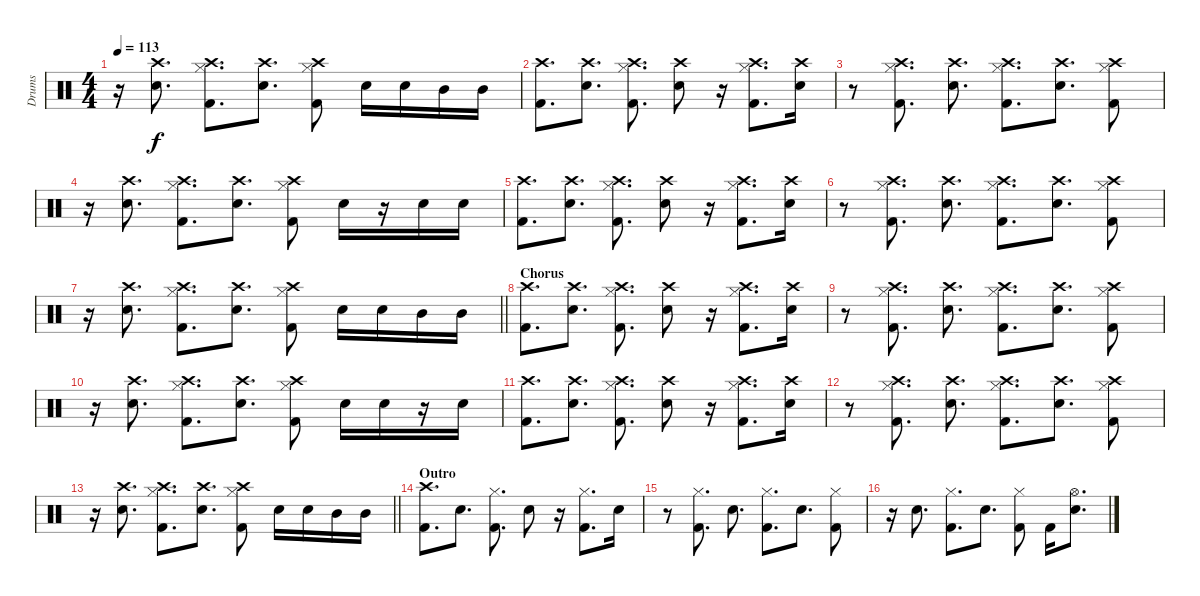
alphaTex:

\track ("Drums" "Drums") {instrument percussion}
\staff {score}
\articulation defaults
\ts (4 4)
\tempo 113
\clef neutral
\ks c
r.16{dy f} ("Crash high (hit)" "Electric Snare (hit)").8{d} ("Crash high (hit)" "Hi-Hat (closed)" "Kick (hit) 2").8{d} ("Crash high (hit)" "Electric Snare (hit)").8{d} ("Crash high (hit)" "Hi-Hat (closed)" "Kick (hit) 2").8 "Electric Snare (hit)".16 "Electric Snare (hit)".16 "Mid Tom (hit)".16 "Mid Tom (hit)".16 |
("Crash high (hit)" "Kick (hit) 2").8{d} ("Crash high (hit)" "Electric Snare (hit)").8{d} ("Crash high (hit)" "Hi-Hat (closed)" "Kick (hit) 2").8{d} ("Crash high (hit)" "Electric Snare (hit)").8 r.16 ("Crash high (hit)" "Hi-Hat (closed)" "Kick (hit) 2").8{d} ("Crash high (hit)" "Electric Snare (hit)").16 |
r.8 ("Crash high (hit)" "Hi-Hat (closed)" "Kick (hit) 2").8{d} ("Crash high (hit)" "Electric Snare (hit)").8{d} ("Crash high (hit)" "Hi-Hat (closed)" "Kick (hit) 2").8{d} ("Crash high (hit)" "Electric Snare (hit)").8{d} ("Crash high (hit)" "Hi-Hat (closed)" "Kick (hit) 2").8 |
r.16 ("Crash high (hit)" "Electric Snare (hit)").8{d} ("Crash high (hit)" "Hi-Hat (closed)" "Kick (hit) 2").8{d} ("Crash high (hit)" "Electric Snare (hit)").8{d} ("Crash high (hit)" "Hi-Hat (closed)" "Kick (hit) 2").8 "Electric Snare (hit)".16 r.16 "Electric Snare (hit)".16 "Electric Snare (hit)".16 |
("Crash high (hit)" "Kick (hit) 2").8{d} ("Crash high (hit)" "Electric Snare (hit)").8{d} ("Crash high (hit)" "Hi-Hat (closed)" "Kick (hit) 2").8{d} ("Crash high (hit)" "Electric Snare (hit)").8 r.16 ("Crash high (hit)" "Hi-Hat (closed)" "Kick (hit) 2").8{d} ("Crash high (hit)" "Electric Snare (hit)").16 |
r.8 ("Crash high (hit)" "Hi-Hat (closed)" "Kick (hit) 2").8{d} ("Crash high (hit)" "Electric Snare (hit)").8{d} ("Crash high (hit)" "Hi-Hat (closed)" "Kick (hit) 2").8{d} ("Crash high (hit)" "Electric Snare (hit)").8{d} ("Crash high (hit)" "Hi-Hat (closed)" "Kick (hit) 2").8 |
\barLineRight lightlight
r.16 ("Crash high (hit)" "Electric Snare (hit)").8{d} ("Crash high (hit)" "Hi-Hat (closed)" "Kick (hit) 2").8{d} ("Crash high (hit)" "Electric Snare (hit)").8{d} ("Crash high (hit)" "Hi-Hat (closed)" "Kick (hit) 2").8 "Electric Snare (hit)".16 "Electric Snare (hit)".16 "Mid Tom (hit)".16 "Mid Tom (hit)".16 |
\section ("" "Chorus")
("Crash high (hit)" "Kick (hit) 2").8{d} ("Crash high (hit)" "Electric Snare (hit)").8{d} ("Crash high (hit)" "Hi-Hat (closed)" "Kick (hit) 2").8{d} ("Crash high (hit)" "Electric Snare (hit)").8 r.16 ("Crash high (hit)" "Hi-Hat (closed)" "Kick (hit) 2").8{d} ("Crash high (hit)" "Electric Snare (hit)").16 |
r.8 ("Crash high (hit)" "Hi-Hat (closed)" "Kick (hit) 2").8{d} ("Crash high (hit)" "Electric Snare (hit)").8{d} ("Crash high (hit)" "Hi-Hat (closed)" "Kick (hit) 2").8{d} ("Crash high (hit)" "Electric Snare (hit)").8{d} ("Crash high (hit)" "Hi-Hat (closed)" "Kick (hit) 2").8 |
r.16 ("Crash high (hit)" "Electric Snare (hit)").8{d} ("Crash high (hit)" "Hi-Hat (closed)" "Kick (hit) 2").8{d} ("Crash high (hit)" "Electric Snare (hit)").8{d} ("Crash high (hit)" "Hi-Hat (closed)" "Kick (hit) 2").8 "Electric Snare (hit)".16 "Electric Snare (hit)".16 r.16 "Electric Snare (hit)".16 |
("Crash high (hit)" "Kick (hit) 2").8{d} ("Crash high (hit)" "Electric Snare (hit)").8{d} ("Crash high (hit)" "Hi-Hat (closed)" "Kick (hit) 2").8{d} ("Crash high (hit)" "Electric Snare (hit)").8 r.16 ("Crash high (hit)" "Hi-Hat (closed)" "Kick (hit) 2").8{d} ("Crash high (hit)" "Electric Snare (hit)").16 |
r.8 ("Crash high (hit)" "Hi-Hat (closed)" "Kick (hit) 2").8{d} ("Crash high (hit)" "Electric Snare (hit)").8{d} ("Crash high (hit)" "Hi-Hat (closed)" "Kick (hit) 2").8{d} ("Crash high (hit)" "Electric Snare (hit)").8{d} ("Crash high (hit)" "Hi-Hat (closed)" "Kick (hit) 2").8 |
\barLineRight lightlight
r.16 ("Crash high (hit)" "Electric Snare (hit)").8{d} ("Crash high (hit)" "Hi-Hat (closed)" "Kick (hit) 2").8{d} ("Crash high (hit)" "Electric Snare (hit)").8{d} ("Crash high (hit)" "Hi-Hat (closed)" "Kick (hit) 2").8 "Electric Snare (hit)".16 "Electric Snare (hit)".16 "Mid Tom (hit)".16 "Mid Tom (hit)".16 |
\section ("" "Outro")
("Crash high (hit)" "Kick (hit) 2").8{d} "Electric Snare (hit)".8{d} ("Hi-Hat (closed)" "Kick (hit) 2").8{d} "Electric Snare (hit)".8 r.16 ("Hi-Hat (closed)" "Kick (hit) 2").8{d} "Electric Snare (hit)".16 |
r.8 ("Hi-Hat (closed)" "Kick (hit) 2").8{d} "Electric Snare (hit)".8{d} ("Hi-Hat (closed)" "Kick (hit) 2").8{d} "Electric Snare (hit)".8{d} ("Hi-Hat (closed)" "Kick (hit) 2").8 |
r.16 "Electric Snare (hit)".8{d} ("Hi-Hat (closed)" "Kick (hit) 2").8{d} "Electric Snare (hit)".8{d} ("Hi-Hat (closed)" "Kick (hit) 2").8 "Kick (hit) 2".16 ("Hi-Hat (open)" "Electric Snare (hit)").8{d}
